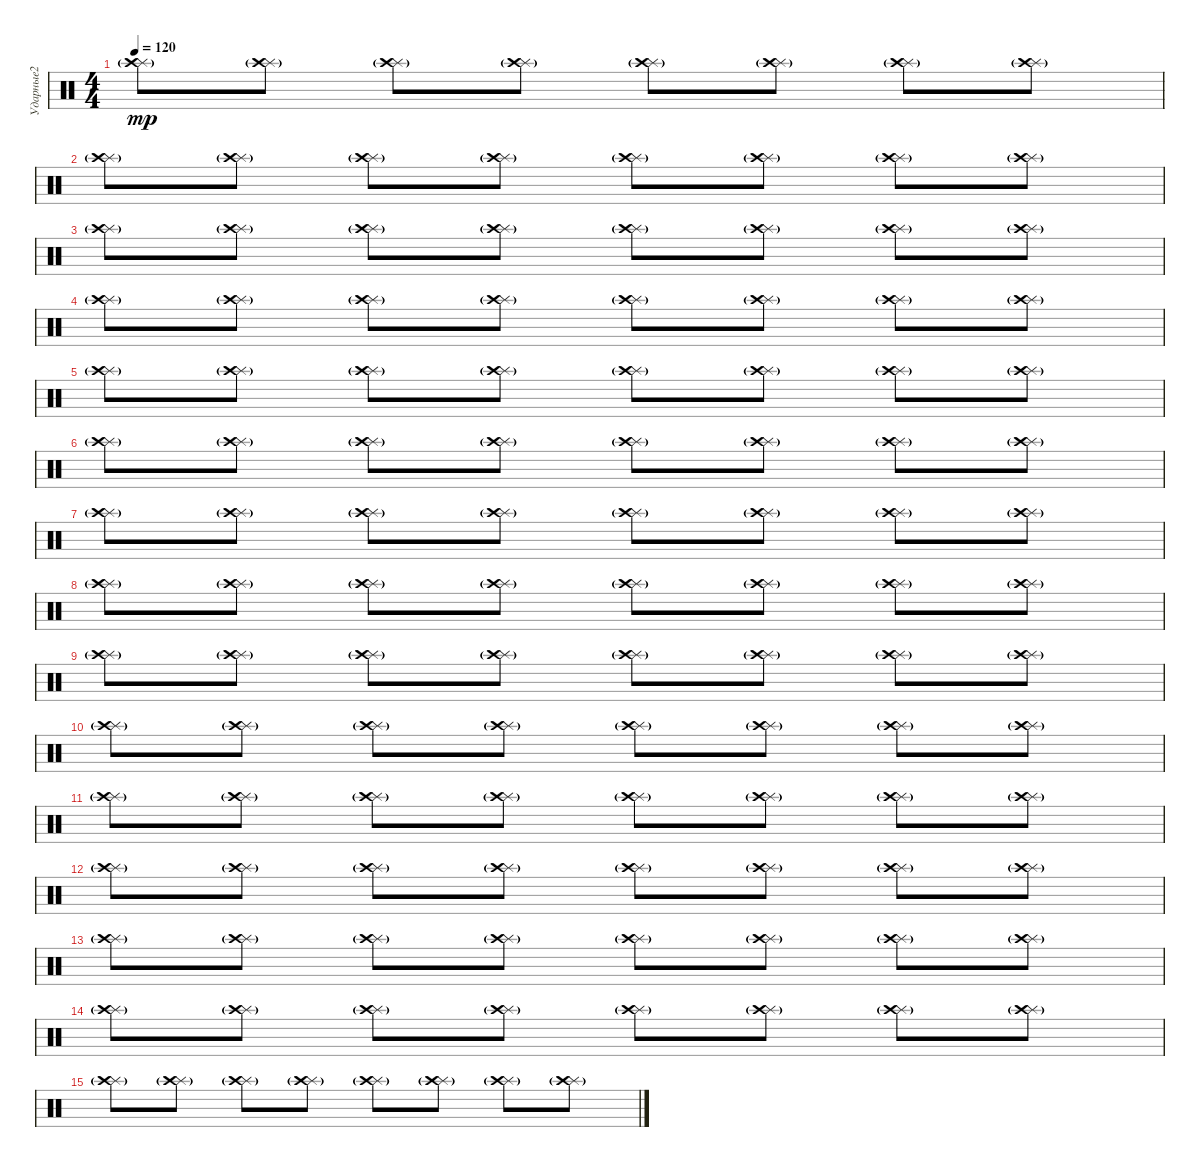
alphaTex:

\track ("Ударные2" "Ударные2") {instrument percussion bank 2}
\staff {score}
\articulation defaults
\ts (4 4)
\tempo 120
\clef neutral
\ks c
("Splash (hit)"{g} "Crash high (hit)"{g}).8{dy mp} ("Splash (hit)"{g} "Crash high (hit)"{g}).8 ("Splash (hit)"{g} "Crash high (hit)"{g}).8 ("Splash (hit)"{g} "Crash high (hit)"{g}).8 ("Splash (hit)"{g} "Crash high (hit)"{g}).8 ("Splash (hit)"{g} "Crash high (hit)"{g}).8 ("Splash (hit)"{g} "Crash high (hit)"{g}).8 ("Splash (hit)"{g} "Crash high (hit)"{g}).8 |
("Splash (hit)"{g} "Crash high (hit)"{g}).8 ("Splash (hit)"{g} "Crash high (hit)"{g}).8 ("Splash (hit)"{g} "Crash high (hit)"{g}).8 ("Splash (hit)"{g} "Crash high (hit)"{g}).8 ("Splash (hit)"{g} "Crash high (hit)"{g}).8 ("Splash (hit)"{g} "Crash high (hit)"{g}).8 ("Splash (hit)"{g} "Crash high (hit)"{g}).8 ("Splash (hit)"{g} "Crash high (hit)"{g}).8 |
("Splash (hit)"{g} "Crash high (hit)"{g}).8 ("Splash (hit)"{g} "Crash high (hit)"{g}).8 ("Splash (hit)"{g} "Crash high (hit)"{g}).8 ("Splash (hit)"{g} "Crash high (hit)"{g}).8 ("Splash (hit)"{g} "Crash high (hit)"{g}).8 ("Splash (hit)"{g} "Crash high (hit)"{g}).8 ("Splash (hit)"{g} "Crash high (hit)"{g}).8 ("Splash (hit)"{g} "Crash high (hit)"{g}).8 |
("Splash (hit)"{g} "Crash high (hit)"{g}).8 ("Splash (hit)"{g} "Crash high (hit)"{g}).8 ("Splash (hit)"{g} "Crash high (hit)"{g}).8 ("Splash (hit)"{g} "Crash high (hit)"{g}).8 ("Splash (hit)"{g} "Crash high (hit)"{g}).8 ("Splash (hit)"{g} "Crash high (hit)"{g}).8 ("Splash (hit)"{g} "Crash high (hit)"{g}).8 ("Splash (hit)"{g} "Crash high (hit)"{g}).8 |
("Splash (hit)"{g} "Crash high (hit)"{g}).8 ("Splash (hit)"{g} "Crash high (hit)"{g}).8 ("Splash (hit)"{g} "Crash high (hit)"{g}).8 ("Splash (hit)"{g} "Crash high (hit)"{g}).8 ("Splash (hit)"{g} "Crash high (hit)"{g}).8 ("Splash (hit)"{g} "Crash high (hit)"{g}).8 ("Splash (hit)"{g} "Crash high (hit)"{g}).8 ("Splash (hit)"{g} "Crash high (hit)"{g}).8 |
("Splash (hit)"{g} "Crash high (hit)"{g}).8 ("Splash (hit)"{g} "Crash high (hit)"{g}).8 ("Splash (hit)"{g} "Crash high (hit)"{g}).8 ("Splash (hit)"{g} "Crash high (hit)"{g}).8 ("Splash (hit)"{g} "Crash high (hit)"{g}).8 ("Splash (hit)"{g} "Crash high (hit)"{g}).8 ("Splash (hit)"{g} "Crash high (hit)"{g}).8 ("Splash (hit)"{g} "Crash high (hit)"{g}).8 |
("Splash (hit)"{g} "Crash high (hit)"{g}).8 ("Splash (hit)"{g} "Crash high (hit)"{g}).8 ("Splash (hit)"{g} "Crash high (hit)"{g}).8 ("Splash (hit)"{g} "Crash high (hit)"{g}).8 ("Splash (hit)"{g} "Crash high (hit)"{g}).8 ("Splash (hit)"{g} "Crash high (hit)"{g}).8 ("Splash (hit)"{g} "Crash high (hit)"{g}).8 ("Splash (hit)"{g} "Crash high (hit)"{g}).8 |
("Splash (hit)"{g} "Crash high (hit)"{g}).8 ("Splash (hit)"{g} "Crash high (hit)"{g}).8 ("Splash (hit)"{g} "Crash high (hit)"{g}).8 ("Splash (hit)"{g} "Crash high (hit)"{g}).8 ("Splash (hit)"{g} "Crash high (hit)"{g}).8 ("Splash (hit)"{g} "Crash high (hit)"{g}).8 ("Splash (hit)"{g} "Crash high (hit)"{g}).8 ("Splash (hit)"{g} "Crash high (hit)"{g}).8 |
("Splash (hit)"{g} "Crash high (hit)"{g}).8 ("Splash (hit)"{g} "Crash high (hit)"{g}).8 ("Splash (hit)"{g} "Crash high (hit)"{g}).8 ("Splash (hit)"{g} "Crash high (hit)"{g}).8 ("Splash (hit)"{g} "Crash high (hit)"{g}).8 ("Splash (hit)"{g} "Crash high (hit)"{g}).8 ("Splash (hit)"{g} "Crash high (hit)"{g}).8 ("Splash (hit)"{g} "Crash high (hit)"{g}).8 |
("Splash (hit)"{g} "Crash high (hit)"{g}).8 ("Splash (hit)"{g} "Crash high (hit)"{g}).8 ("Splash (hit)"{g} "Crash high (hit)"{g}).8 ("Splash (hit)"{g} "Crash high (hit)"{g}).8 ("Splash (hit)"{g} "Crash high (hit)"{g}).8 ("Splash (hit)"{g} "Crash high (hit)"{g}).8 ("Splash (hit)"{g} "Crash high (hit)"{g}).8 ("Splash (hit)"{g} "Crash high (hit)"{g}).8 |
("Splash (hit)"{g} "Crash high (hit)"{g}).8 ("Splash (hit)"{g} "Crash high (hit)"{g}).8 ("Splash (hit)"{g} "Crash high (hit)"{g}).8 ("Splash (hit)"{g} "Crash high (hit)"{g}).8 ("Splash (hit)"{g} "Crash high (hit)"{g}).8 ("Splash (hit)"{g} "Crash high (hit)"{g}).8 ("Splash (hit)"{g} "Crash high (hit)"{g}).8 ("Splash (hit)"{g} "Crash high (hit)"{g}).8 |
("Splash (hit)"{g} "Crash high (hit)"{g}).8 ("Splash (hit)"{g} "Crash high (hit)"{g}).8 ("Splash (hit)"{g} "Crash high (hit)"{g}).8 ("Splash (hit)"{g} "Crash high (hit)"{g}).8 ("Splash (hit)"{g} "Crash high (hit)"{g}).8 ("Splash (hit)"{g} "Crash high (hit)"{g}).8 ("Splash (hit)"{g} "Crash high (hit)"{g}).8 ("Splash (hit)"{g} "Crash high (hit)"{g}).8 |
("Splash (hit)"{g} "Crash high (hit)"{g}).8 ("Splash (hit)"{g} "Crash high (hit)"{g}).8 ("Splash (hit)"{g} "Crash high (hit)"{g}).8 ("Splash (hit)"{g} "Crash high (hit)"{g}).8 ("Splash (hit)"{g} "Crash high (hit)"{g}).8 ("Splash (hit)"{g} "Crash high (hit)"{g}).8 ("Splash (hit)"{g} "Crash high (hit)"{g}).8 ("Splash (hit)"{g} "Crash high (hit)"{g}).8 |
("Splash (hit)"{g} "Crash high (hit)"{g}).8 ("Splash (hit)"{g} "Crash high (hit)"{g}).8 ("Splash (hit)"{g} "Crash high (hit)"{g}).8 ("Splash (hit)"{g} "Crash high (hit)"{g}).8 ("Splash (hit)"{g} "Crash high (hit)"{g}).8 ("Splash (hit)"{g} "Crash high (hit)"{g}).8 ("Splash (hit)"{g} "Crash high (hit)"{g}).8 ("Splash (hit)"{g} "Crash high (hit)"{g}).8 |
("Splash (hit)"{g} "Crash high (hit)"{g}).8 ("Splash (hit)"{g} "Crash high (hit)"{g}).8 ("Splash (hit)"{g} "Crash high (hit)"{g}).8 ("Splash (hit)"{g} "Crash high (hit)"{g}).8 ("Splash (hit)"{g} "Crash high (hit)"{g}).8 ("Splash (hit)"{g} "Crash high (hit)"{g}).8 ("Splash (hit)"{g} "Crash high (hit)"{g}).8 ("Splash (hit)"{g} "Crash high (hit)"{g}).8
